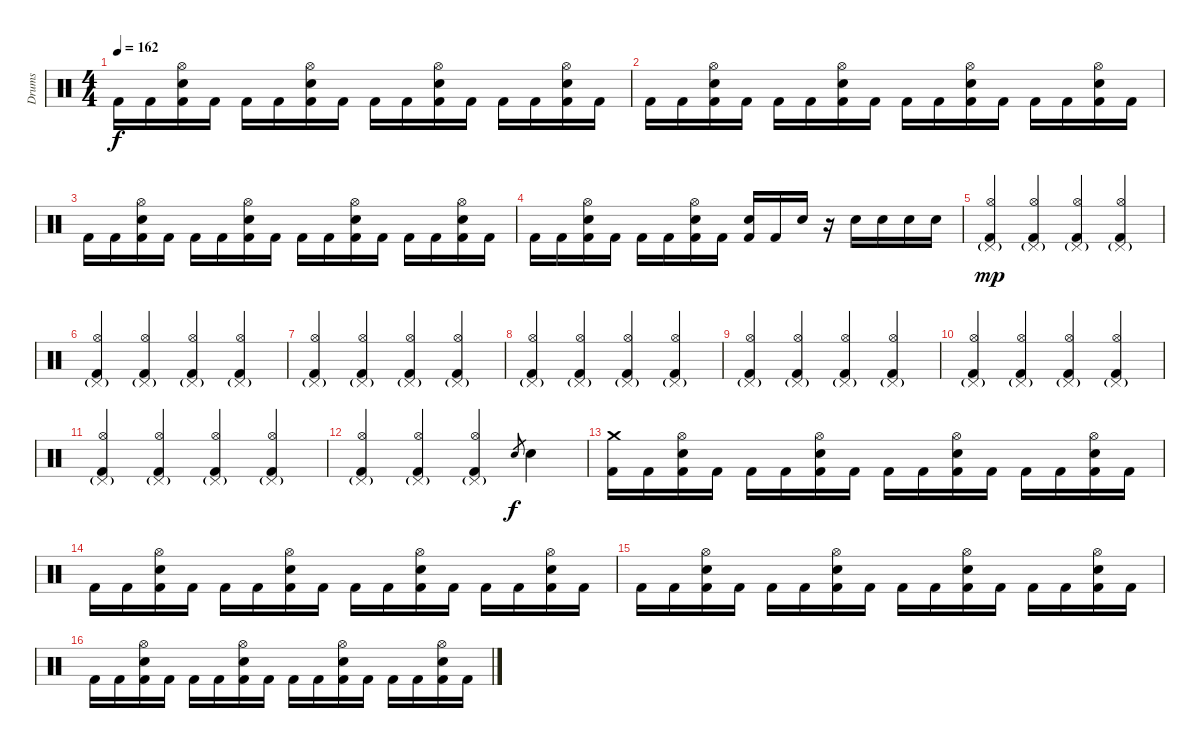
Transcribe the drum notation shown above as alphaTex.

\track ("Drums" "Drums") {instrument percussion}
\staff {score}
\articulation defaults
\ts (4 4)
\tempo 162
\clef neutral
\ks c "Kick (hit) 2".16{dy f} "Kick (hit) 2".16
("Electric Snare (hit)" "Hi-Hat (open)" "Kick (hit) 2").16 "Kick (hit) 2".16 "Kick (hit) 2".16 "Kick (hit) 2".16 ("Electric Snare (hit)" "Kick (hit) 2" "Hi-Hat (open)").16 "Kick (hit) 2".16 "Kick (hit) 2".16 "Kick (hit) 2".16 ("Kick (hit) 2" "Hi-Hat (open)" "Electric Snare (hit)").16 "Kick (hit) 2".16 "Kick (hit) 2".16 "Kick (hit) 2".16 ("Kick (hit) 2" "Hi-Hat (open)" "Electric Snare (hit)").16 "Kick (hit) 2".16 |
"Kick (hit) 2".16 "Kick (hit) 2".16 ("Hi-Hat (open)" "Electric Snare (hit)" "Kick (hit) 2").16 "Kick (hit) 2".16 "Kick (hit) 2".16 "Kick (hit) 2".16 ("Hi-Hat (open)" "Kick (hit) 2" "Electric Snare (hit)").16 "Kick (hit) 2".16 "Kick (hit) 2".16 "Kick (hit) 2".16 ("Electric Snare (hit)" "Hi-Hat (open)" "Kick (hit) 2").16 "Kick (hit) 2".16 "Kick (hit) 2".16 "Kick (hit) 2".16 ("Electric Snare (hit)" "Hi-Hat (open)" "Kick (hit) 2").16 "Kick (hit) 2".16 |
"Kick (hit) 2".16 "Kick (hit) 2".16 ("Hi-Hat (open)" "Electric Snare (hit)" "Kick (hit) 2").16 "Kick (hit) 2".16 "Kick (hit) 2".16 "Kick (hit) 2".16 ("Hi-Hat (open)" "Electric Snare (hit)" "Kick (hit) 2").16 "Kick (hit) 2".16 "Kick (hit) 2".16 "Kick (hit) 2".16 ("Electric Snare (hit)" "Hi-Hat (open)" "Kick (hit) 2").16 "Kick (hit) 2".16 "Kick (hit) 2".16 "Kick (hit) 2".16 ("Electric Snare (hit)" "Hi-Hat (open)" "Kick (hit) 2").16 "Kick (hit) 2".16 |
"Kick (hit) 2".16 "Kick (hit) 2".16 ("Electric Snare (hit)" "Kick (hit) 2" "Hi-Hat (open)").16 "Kick (hit) 2".16 "Kick (hit) 2".16 "Kick (hit) 2".16 ("Kick (hit) 2" "Hi-Hat (open)" "Electric Snare (hit)").16 "Kick (hit) 2".16 ("Kick (hit) 2" "Electric Snare (hit)").16 "Kick (hit) 2".16 "Electric Snare (hit)".16 r.16 "Electric Snare (hit)".16 "Electric Snare (hit)".16 "Electric Snare (hit)".16 "Electric Snare (hit)".16 |
("Hi-Hat (open)" "Pedal Hi-Hat (hit)"{g} "Kick (hit) 2").4{dy mp} ("Hi-Hat (open)" "Pedal Hi-Hat (hit)"{g} "Kick (hit) 2").4 ("Hi-Hat (open)" "Pedal Hi-Hat (hit)"{g} "Kick (hit) 2").4 ("Hi-Hat (open)" "Pedal Hi-Hat (hit)"{g} "Kick (hit) 2").4 |
("Hi-Hat (open)" "Pedal Hi-Hat (hit)"{g} "Kick (hit) 2").4 ("Hi-Hat (open)" "Pedal Hi-Hat (hit)"{g} "Kick (hit) 2").4 ("Hi-Hat (open)" "Pedal Hi-Hat (hit)"{g} "Kick (hit) 2").4 ("Hi-Hat (open)" "Pedal Hi-Hat (hit)"{g} "Kick (hit) 2").4 |
("Hi-Hat (open)" "Pedal Hi-Hat (hit)"{g} "Kick (hit) 2").4 ("Hi-Hat (open)" "Pedal Hi-Hat (hit)"{g} "Kick (hit) 2").4 ("Hi-Hat (open)" "Pedal Hi-Hat (hit)"{g} "Kick (hit) 2").4 ("Hi-Hat (open)" "Pedal Hi-Hat (hit)"{g} "Kick (hit) 2").4 |
("Hi-Hat (open)" "Pedal Hi-Hat (hit)"{g} "Kick (hit) 2").4 ("Hi-Hat (open)" "Pedal Hi-Hat (hit)"{g} "Kick (hit) 2").4 ("Hi-Hat (open)" "Pedal Hi-Hat (hit)"{g} "Kick (hit) 2").4 ("Hi-Hat (open)" "Pedal Hi-Hat (hit)"{g} "Kick (hit) 2").4 |
("Hi-Hat (open)" "Pedal Hi-Hat (hit)"{g} "Kick (hit) 2").4 ("Hi-Hat (open)" "Pedal Hi-Hat (hit)"{g} "Kick (hit) 2").4 ("Hi-Hat (open)" "Pedal Hi-Hat (hit)"{g} "Kick (hit) 2").4 ("Hi-Hat (open)" "Pedal Hi-Hat (hit)"{g} "Kick (hit) 2").4 |
("Hi-Hat (open)" "Pedal Hi-Hat (hit)"{g} "Kick (hit) 2").4 ("Hi-Hat (open)" "Pedal Hi-Hat (hit)"{g} "Kick (hit) 2").4 ("Hi-Hat (open)" "Pedal Hi-Hat (hit)"{g} "Kick (hit) 2").4 ("Hi-Hat (open)" "Pedal Hi-Hat (hit)"{g} "Kick (hit) 2").4 |
("Hi-Hat (open)" "Pedal Hi-Hat (hit)"{g} "Kick (hit) 2").4 ("Hi-Hat (open)" "Pedal Hi-Hat (hit)"{g} "Kick (hit) 2").4 ("Hi-Hat (open)" "Pedal Hi-Hat (hit)"{g} "Kick (hit) 2").4 ("Hi-Hat (open)" "Pedal Hi-Hat (hit)"{g} "Kick (hit) 2").4 |
("Hi-Hat (open)" "Pedal Hi-Hat (hit)"{g} "Kick (hit) 2").4 ("Hi-Hat (open)" "Pedal Hi-Hat (hit)"{g} "Kick (hit) 2").4 ("Hi-Hat (open)" "Pedal Hi-Hat (hit)"{g} "Kick (hit) 2").4 "Electric Snare (hit)".8{gr dy f} "Electric Snare (hit)".4 |
("Crash medium (hit)" "Kick (hit) 2").16 "Kick (hit) 2".16 ("Hi-Hat (open)" "Electric Snare (hit)" "Kick (hit) 2").16 "Kick (hit) 2".16 "Kick (hit) 2".16 "Kick (hit) 2".16 ("Electric Snare (hit)" "Kick (hit) 2" "Hi-Hat (open)").16 "Kick (hit) 2".16 "Kick (hit) 2".16 "Kick (hit) 2".16 ("Electric Snare (hit)" "Kick (hit) 2" "Hi-Hat (open)").16 "Kick (hit) 2".16 "Kick (hit) 2".16 "Kick (hit) 2".16 ("Hi-Hat (open)" "Electric Snare (hit)" "Kick (hit) 2").16 "Kick (hit) 2".16 |
"Kick (hit) 2".16 "Kick (hit) 2".16 ("Hi-Hat (open)" "Electric Snare (hit)" "Kick (hit) 2").16 "Kick (hit) 2".16 "Kick (hit) 2".16 "Kick (hit) 2".16 ("Hi-Hat (open)" "Electric Snare (hit)" "Kick (hit) 2").16 "Kick (hit) 2".16 "Kick (hit) 2".16 "Kick (hit) 2".16 ("Electric Snare (hit)" "Kick (hit) 2" "Hi-Hat (open)").16 "Kick (hit) 2".16 "Kick (hit) 2".16 "Kick (hit) 2".16 ("Electric Snare (hit)" "Kick (hit) 2" "Hi-Hat (open)").16 "Kick (hit) 2".16 |
"Kick (hit) 2".16 "Kick (hit) 2".16 ("Electric Snare (hit)" "Kick (hit) 2" "Hi-Hat (open)").16 "Kick (hit) 2".16 "Kick (hit) 2".16 "Kick (hit) 2".16 ("Hi-Hat (open)" "Kick (hit) 2" "Electric Snare (hit)").16 "Kick (hit) 2".16 "Kick (hit) 2".16 "Kick (hit) 2".16 ("Hi-Hat (open)" "Kick (hit) 2" "Electric Snare (hit)").16 "Kick (hit) 2".16 "Kick (hit) 2".16 "Kick (hit) 2".16 ("Hi-Hat (open)" "Electric Snare (hit)" "Kick (hit) 2").16 "Kick (hit) 2".16 |
"Kick (hit) 2".16 "Kick (hit) 2".16 ("Kick (hit) 2" "Hi-Hat (open)" "Electric Snare (hit)").16 "Kick (hit) 2".16 "Kick (hit) 2".16 "Kick (hit) 2".16 ("Hi-Hat (open)" "Kick (hit) 2" "Electric Snare (hit)").16 "Kick (hit) 2".16 "Kick (hit) 2".16 "Kick (hit) 2".16 ("Hi-Hat (open)" "Electric Snare (hit)" "Kick (hit) 2").16 "Kick (hit) 2".16 "Kick (hit) 2".16 "Kick (hit) 2".16 ("Hi-Hat (open)" "Electric Snare (hit)" "Kick (hit) 2").16 "Kick (hit) 2".16
